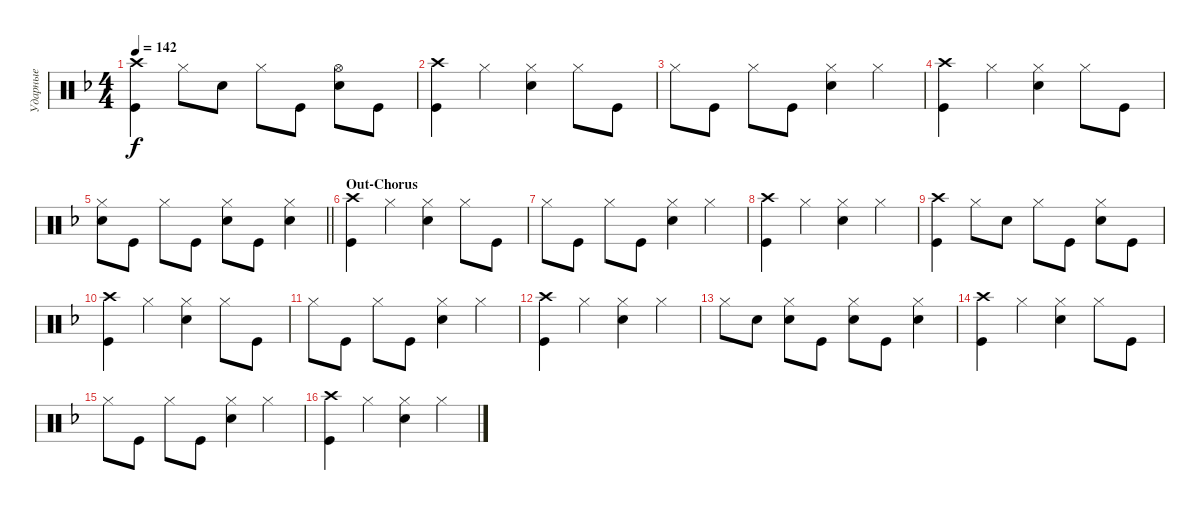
\track ("Ударные" "Ударные") {instrument percussion}
\staff {score}
\articulation defaults
\ts (4 4)
\tempo 142
\clef neutral
\ks dminor
("Kick (hit)" "Crash high (hit)").4{dy f} "Hi-Hat (closed)".8 "Snare (hit) 2".8 "Hi-Hat (closed)".8 "Kick (hit)".8 ("Snare (hit) 2" "Hi-Hat (open)").8 "Kick (hit)".8 |
("Kick (hit)" "Crash high (hit)").4 "Hi-Hat (closed)".4 ("Hi-Hat (closed)" "Snare (hit) 2").4 "Hi-Hat (closed)".8 "Kick (hit)".8 |
"Hi-Hat (closed)".8 "Kick (hit)".8 "Hi-Hat (closed)".8 "Kick (hit)".8 ("Snare (hit) 2" "Hi-Hat (closed)").4 "Hi-Hat (closed)".4 |
("Kick (hit)" "Crash high (hit)").4 "Hi-Hat (closed)".4 ("Hi-Hat (closed)" "Snare (hit) 2").4 "Hi-Hat (closed)".8 "Kick (hit)".8 |
\barLineRight lightlight
("Snare (hit) 2" "Hi-Hat (closed)").8 "Kick (hit)".8 "Hi-Hat (closed)".8 "Kick (hit)".8 ("Snare (hit) 2" "Hi-Hat (closed)").8 "Kick (hit)".8 ("Snare (hit) 2" "Hi-Hat (closed)").4 |
\section ("" "Out-Chorus")
("Kick (hit)" "Crash high (hit)").4 "Hi-Hat (closed)".4 ("Hi-Hat (closed)" "Snare (hit) 2").4 "Hi-Hat (closed)".8 "Kick (hit)".8 |
"Hi-Hat (closed)".8 "Kick (hit)".8 "Hi-Hat (closed)".8 "Kick (hit)".8 ("Snare (hit) 2" "Hi-Hat (closed)").4 "Hi-Hat (closed)".4 |
("Kick (hit)" "Crash high (hit)").4 "Hi-Hat (closed)".4 ("Hi-Hat (closed)" "Snare (hit) 2").4 "Hi-Hat (closed)".4 |
("Kick (hit)" "Crash high (hit)").4 "Hi-Hat (closed)".8 "Snare (hit) 2".8 "Hi-Hat (closed)".8 "Kick (hit)".8 ("Snare (hit) 2" "Hi-Hat (closed)").8 "Kick (hit)".8 |
("Kick (hit)" "Crash high (hit)").4 "Hi-Hat (closed)".4 ("Hi-Hat (closed)" "Snare (hit) 2").4 "Hi-Hat (closed)".8 "Kick (hit)".8 |
"Hi-Hat (closed)".8 "Kick (hit)".8 "Hi-Hat (closed)".8 "Kick (hit)".8 ("Snare (hit) 2" "Hi-Hat (closed)").4 "Hi-Hat (closed)".4 |
("Kick (hit)" "Crash high (hit)").4 "Hi-Hat (closed)".4 ("Hi-Hat (closed)" "Snare (hit) 2").4 "Hi-Hat (closed)".4 |
"Hi-Hat (closed)".8 "Snare (hit) 2".8 ("Snare (hit) 2" "Hi-Hat (closed)").8 "Kick (hit)".8 ("Snare (hit) 2" "Hi-Hat (closed)").8 "Kick (hit)".8 ("Snare (hit) 2" "Hi-Hat (closed)").4 |
("Kick (hit)" "Crash high (hit)").4 "Hi-Hat (closed)".4 ("Hi-Hat (closed)" "Snare (hit) 2").4 "Hi-Hat (closed)".8 "Kick (hit)".8 |
"Hi-Hat (closed)".8 "Kick (hit)".8 "Hi-Hat (closed)".8 "Kick (hit)".8 ("Snare (hit) 2" "Hi-Hat (closed)").4 "Hi-Hat (closed)".4 |
("Kick (hit)" "Crash high (hit)").4 "Hi-Hat (closed)".4 ("Hi-Hat (closed)" "Snare (hit) 2").4 "Hi-Hat (closed)".4
